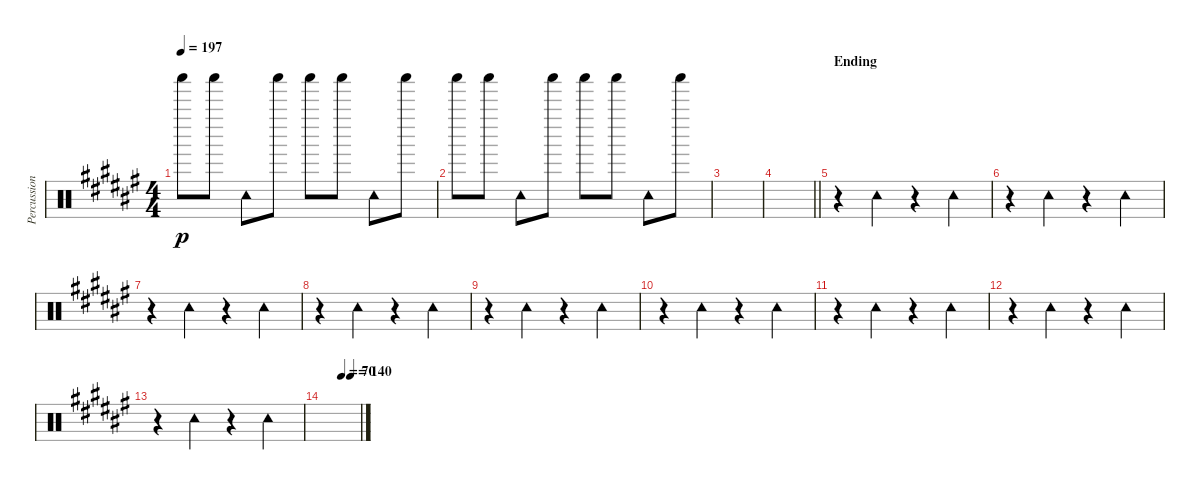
\track ("Percussion (Tainaka Ritsu)" "Percussion") {instrument percussion}
\staff {score}
\articulation defaults
\ts (4 4)
\tempo 197
\clef neutral
\ks f# "Shaker (hit)".8{dy p} "Shaker (hit)".8 "Tambourine (hit)".8 "Shaker (hit)".8 "Shaker (hit)".8 "Shaker (hit)".8 "Tambourine (hit)".8 "Shaker (hit)".8
|
"Shaker (hit)".8 "Shaker (hit)".8 "Tambourine (hit)".8 "Shaker (hit)".8 "Shaker (hit)".8 "Shaker (hit)".8 "Tambourine (hit)".8 "Shaker (hit)".8 |
|
\barLineRight lightlight
|
\section ("" "Ending")
r.4 "Tambourine (hit)".4 r.4 "Tambourine (hit)".4 |
r.4 "Tambourine (hit)".4 r.4 "Tambourine (hit)".4 |
r.4 "Tambourine (hit)".4 r.4 "Tambourine (hit)".4 |
r.4 "Tambourine (hit)".4 r.4 "Tambourine (hit)".4 |
r.4 "Tambourine (hit)".4 r.4 "Tambourine (hit)".4 |
r.4 "Tambourine (hit)".4 r.4 "Tambourine (hit)".4 |
r.4 "Tambourine (hit)".4 r.4 "Tambourine (hit)".4 |
r.4 "Tambourine (hit)".4 r.4 "Tambourine (hit)".4 |
r.4 "Tambourine (hit)".4 r.4 "Tambourine (hit)".4 |
\tempo (70 0.5)
\tempo (140 0.75)
